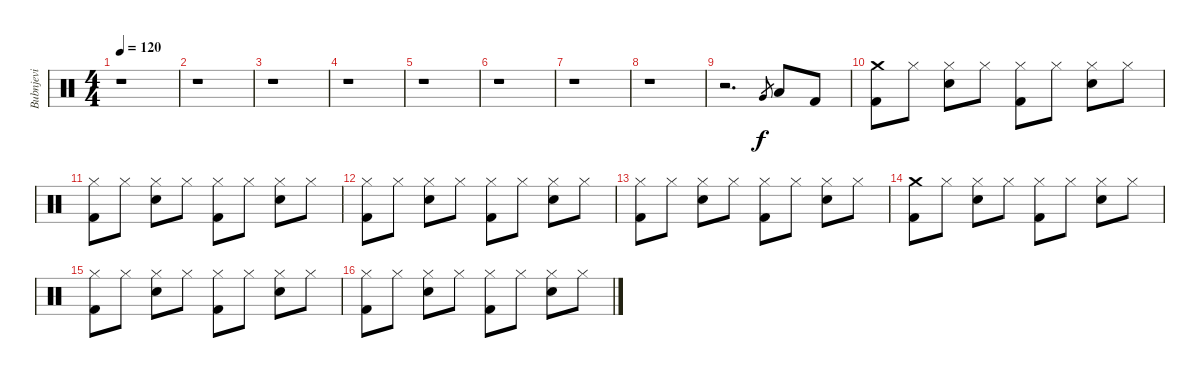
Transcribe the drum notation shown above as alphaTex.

\track ("Bubnjevi" "Bubnjevi") {instrument percussion}
\staff {score}
\articulation defaults
\ts (4 4)
\tempo 120
\clef neutral
\ks c
r.1{dy f} |
r.1 |
r.1 |
r.1 |
r.1 |
r.1 |
r.1 |
r.1 |
r.2{d} "Very Low Tom (hit)".8{gr} "Low Floor Tom (hit)".8 "Kick (hit) 2".8 |
("Crash medium (hit)" "Kick (hit) 2").8 "Hi-Hat (closed)".8 ("Electric Snare (hit)" "Hi-Hat (closed)").8 "Hi-Hat (closed)".8 ("Hi-Hat (closed)" "Kick (hit) 2").8 "Hi-Hat (closed)".8 ("Electric Snare (hit)" "Hi-Hat (closed)").8 "Hi-Hat (closed)".8 |
("Hi-Hat (closed)" "Kick (hit) 2").8 "Hi-Hat (closed)".8 ("Electric Snare (hit)" "Hi-Hat (closed)").8 "Hi-Hat (closed)".8 ("Hi-Hat (closed)" "Kick (hit) 2").8 "Hi-Hat (closed)".8 ("Electric Snare (hit)" "Hi-Hat (closed)").8 "Hi-Hat (closed)".8 |
("Hi-Hat (closed)" "Kick (hit) 2").8 "Hi-Hat (closed)".8 ("Electric Snare (hit)" "Hi-Hat (closed)").8 "Hi-Hat (closed)".8 ("Hi-Hat (closed)" "Kick (hit) 2").8 "Hi-Hat (closed)".8 ("Electric Snare (hit)" "Hi-Hat (closed)").8 "Hi-Hat (closed)".8 |
("Hi-Hat (closed)" "Kick (hit) 2").8 "Hi-Hat (closed)".8 ("Electric Snare (hit)" "Hi-Hat (closed)").8 "Hi-Hat (closed)".8 ("Hi-Hat (closed)" "Kick (hit) 2").8 "Hi-Hat (closed)".8 ("Electric Snare (hit)" "Hi-Hat (closed)").8 "Hi-Hat (closed)".8 |
("Crash medium (hit)" "Kick (hit) 2").8 "Hi-Hat (closed)".8 ("Electric Snare (hit)" "Hi-Hat (closed)").8 "Hi-Hat (closed)".8 ("Hi-Hat (closed)" "Kick (hit) 2").8 "Hi-Hat (closed)".8 ("Electric Snare (hit)" "Hi-Hat (closed)").8 "Hi-Hat (closed)".8 |
("Hi-Hat (closed)" "Kick (hit) 2").8 "Hi-Hat (closed)".8 ("Electric Snare (hit)" "Hi-Hat (closed)").8 "Hi-Hat (closed)".8 ("Hi-Hat (closed)" "Kick (hit) 2").8 "Hi-Hat (closed)".8 ("Electric Snare (hit)" "Hi-Hat (closed)").8 "Hi-Hat (closed)".8 |
("Hi-Hat (closed)" "Kick (hit) 2").8 "Hi-Hat (closed)".8 ("Electric Snare (hit)" "Hi-Hat (closed)").8 "Hi-Hat (closed)".8 ("Hi-Hat (closed)" "Kick (hit) 2").8 "Hi-Hat (closed)".8 ("Electric Snare (hit)" "Hi-Hat (closed)").8 "Hi-Hat (closed)".8
